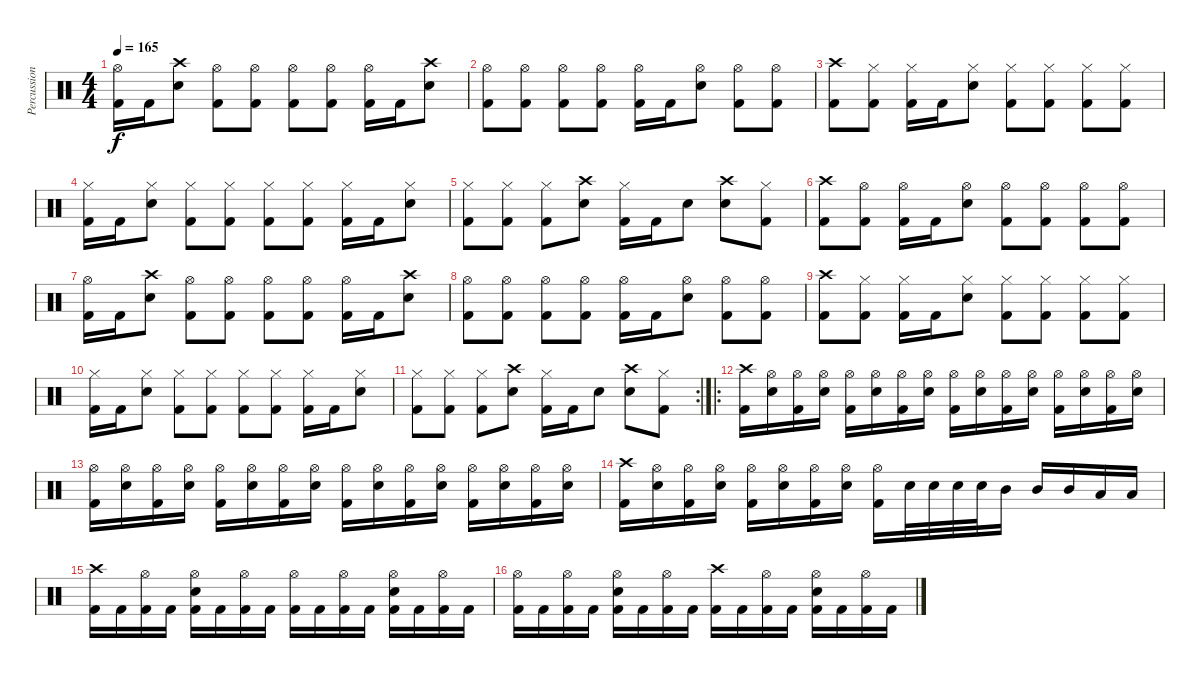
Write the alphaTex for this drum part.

\track ("Percussion" "Percussion") {instrument percussion}
\staff {score}
\articulation defaults
\ts (4 4)
\tempo 165
\clef neutral
\ks c
("Hi-Hat (open)" "Kick (hit) 2").16{dy f} "Kick (hit) 2".16 ("Crash high (hit)" "Snare (hit) 2").8 ("Hi-Hat (open)" "Kick (hit) 2").8 ("Hi-Hat (open)" "Kick (hit) 2").8 ("Hi-Hat (open)" "Kick (hit) 2").8 ("Hi-Hat (open)" "Kick (hit) 2").8 ("Hi-Hat (open)" "Kick (hit) 2").16 "Kick (hit) 2".16 ("Crash high (hit)" "Snare (hit) 2").8 |
("Hi-Hat (open)" "Kick (hit) 2").8 ("Hi-Hat (open)" "Kick (hit) 2").8 ("Hi-Hat (open)" "Kick (hit) 2").8 ("Hi-Hat (open)" "Kick (hit) 2").8 ("Hi-Hat (open)" "Kick (hit) 2").16 "Kick (hit) 2".16 ("Hi-Hat (open)" "Snare (hit) 2").8 ("Hi-Hat (open)" "Kick (hit) 2").8 ("Hi-Hat (open)" "Kick (hit) 2").8 |
("Crash high (hit)" "Kick (hit) 2").8 ("Hi-Hat (closed)" "Kick (hit) 2").8 ("Hi-Hat (closed)" "Kick (hit) 2").16 "Kick (hit) 2".16 ("Hi-Hat (closed)" "Snare (hit) 2").8 ("Hi-Hat (closed)" "Kick (hit) 2").8 ("Hi-Hat (closed)" "Kick (hit) 2").8 ("Hi-Hat (closed)" "Kick (hit) 2").8 ("Hi-Hat (closed)" "Kick (hit) 2").8 |
("Hi-Hat (closed)" "Kick (hit) 2").16 "Kick (hit) 2".16 ("Hi-Hat (closed)" "Snare (hit) 2").8 ("Hi-Hat (closed)" "Kick (hit) 2").8 ("Hi-Hat (closed)" "Kick (hit) 2").8 ("Hi-Hat (closed)" "Kick (hit) 2").8 ("Hi-Hat (closed)" "Kick (hit) 2").8 ("Hi-Hat (closed)" "Kick (hit) 2").16 "Kick (hit) 2".16 ("Hi-Hat (closed)" "Snare (hit) 2").8 |
("Hi-Hat (closed)" "Kick (hit) 2").8 ("Hi-Hat (closed)" "Kick (hit) 2").8 ("Hi-Hat (closed)" "Kick (hit) 2").8 ("Crash high (hit)" "Snare (hit) 2").8 ("Hi-Hat (closed)" "Kick (hit) 2").16 "Kick (hit) 2".16 "Snare (hit) 2".8 ("Crash high (hit)" "Snare (hit) 2").8 ("Hi-Hat (closed)" "Kick (hit) 2").8 |
("Crash high (hit)" "Kick (hit) 2").8 ("Hi-Hat (open)" "Kick (hit) 2").8 ("Hi-Hat (open)" "Kick (hit) 2").16 "Kick (hit) 2".16 ("Hi-Hat (open)" "Snare (hit) 2").8 ("Hi-Hat (open)" "Kick (hit) 2").8 ("Hi-Hat (open)" "Kick (hit) 2").8 ("Hi-Hat (open)" "Kick (hit) 2").8 ("Hi-Hat (open)" "Kick (hit) 2").8 |
("Hi-Hat (open)" "Kick (hit) 2").16 "Kick (hit) 2".16 ("Crash high (hit)" "Snare (hit) 2").8 ("Hi-Hat (open)" "Kick (hit) 2").8 ("Hi-Hat (open)" "Kick (hit) 2").8 ("Hi-Hat (open)" "Kick (hit) 2").8 ("Hi-Hat (open)" "Kick (hit) 2").8 ("Hi-Hat (open)" "Kick (hit) 2").16 "Kick (hit) 2".16 ("Crash high (hit)" "Snare (hit) 2").8 |
("Hi-Hat (open)" "Kick (hit) 2").8 ("Hi-Hat (open)" "Kick (hit) 2").8 ("Hi-Hat (open)" "Kick (hit) 2").8 ("Hi-Hat (open)" "Kick (hit) 2").8 ("Hi-Hat (open)" "Kick (hit) 2").16 "Kick (hit) 2".16 ("Hi-Hat (open)" "Snare (hit) 2").8 ("Hi-Hat (open)" "Kick (hit) 2").8 ("Hi-Hat (open)" "Kick (hit) 2").8 |
("Crash high (hit)" "Kick (hit) 2").8 ("Hi-Hat (closed)" "Kick (hit) 2").8 ("Hi-Hat (closed)" "Kick (hit) 2").16 "Kick (hit) 2".16 ("Hi-Hat (closed)" "Snare (hit) 2").8 ("Hi-Hat (closed)" "Kick (hit) 2").8 ("Hi-Hat (closed)" "Kick (hit) 2").8 ("Hi-Hat (closed)" "Kick (hit) 2").8 ("Hi-Hat (closed)" "Kick (hit) 2").8 |
("Hi-Hat (closed)" "Kick (hit) 2").16 "Kick (hit) 2".16 ("Hi-Hat (closed)" "Snare (hit) 2").8 ("Hi-Hat (closed)" "Kick (hit) 2").8 ("Hi-Hat (closed)" "Kick (hit) 2").8 ("Hi-Hat (closed)" "Kick (hit) 2").8 ("Hi-Hat (closed)" "Kick (hit) 2").8 ("Hi-Hat (closed)" "Kick (hit) 2").16 "Kick (hit) 2".16 ("Hi-Hat (closed)" "Snare (hit) 2").8 |
\rc 2
("Hi-Hat (closed)" "Kick (hit) 2").8 ("Hi-Hat (closed)" "Kick (hit) 2").8 ("Hi-Hat (closed)" "Kick (hit) 2").8 ("Crash high (hit)" "Snare (hit) 2").8 ("Hi-Hat (closed)" "Kick (hit) 2").16 "Kick (hit) 2".16 "Snare (hit) 2".8 ("Crash high (hit)" "Snare (hit) 2").8 ("Hi-Hat (closed)" "Kick (hit) 2").8 |
\ro
("Crash high (hit)" "Kick (hit) 2").16 ("Hi-Hat (open)" "Snare (hit) 2").16 ("Hi-Hat (open)" "Kick (hit) 2").16 ("Hi-Hat (open)" "Snare (hit) 2").16 ("Hi-Hat (open)" "Kick (hit) 2").16 ("Hi-Hat (open)" "Snare (hit) 2").16 ("Hi-Hat (open)" "Kick (hit) 2").16 ("Hi-Hat (open)" "Snare (hit) 2").16 ("Hi-Hat (open)" "Kick (hit) 2").16 ("Hi-Hat (open)" "Snare (hit) 2").16 ("Hi-Hat (open)" "Kick (hit) 2").16 ("Hi-Hat (open)" "Snare (hit) 2").16 ("Hi-Hat (open)" "Kick (hit) 2").16 ("Hi-Hat (open)" "Snare (hit) 2").16 ("Hi-Hat (open)" "Kick (hit) 2").16 ("Hi-Hat (open)" "Snare (hit) 2").16 |
("Hi-Hat (open)" "Kick (hit) 2").16 ("Hi-Hat (open)" "Snare (hit) 2").16 ("Hi-Hat (open)" "Kick (hit) 2").16 ("Hi-Hat (open)" "Snare (hit) 2").16 ("Hi-Hat (open)" "Kick (hit) 2").16 ("Hi-Hat (open)" "Snare (hit) 2").16 ("Hi-Hat (open)" "Kick (hit) 2").16 ("Hi-Hat (open)" "Snare (hit) 2").16 ("Hi-Hat (open)" "Kick (hit) 2").16 ("Hi-Hat (open)" "Snare (hit) 2").16 ("Hi-Hat (open)" "Kick (hit) 2").16 ("Hi-Hat (open)" "Snare (hit) 2").16 ("Hi-Hat (open)" "Kick (hit) 2").16 ("Hi-Hat (open)" "Snare (hit) 2").16 ("Hi-Hat (open)" "Kick (hit) 2").16 ("Hi-Hat (open)" "Snare (hit) 2").16 |
("Crash high (hit)" "Kick (hit) 2").16 ("Hi-Hat (open)" "Snare (hit) 2").16 ("Hi-Hat (open)" "Kick (hit) 2").16 ("Hi-Hat (open)" "Snare (hit) 2").16 ("Hi-Hat (open)" "Kick (hit) 2").16 ("Hi-Hat (open)" "Snare (hit) 2").16 ("Hi-Hat (open)" "Kick (hit) 2").16 ("Hi-Hat (open)" "Snare (hit) 2").16 ("Hi-Hat (open)" "Kick (hit) 2").16 "Snare (hit) 2".32 "Snare (hit) 2".32 "Snare (hit) 2".32 "Snare (hit) 2".32 "Mid Tom (hit)".16 "Mid Tom (hit)".16 "Mid Tom (hit)".16 "Low Tom (hit)".16 "Low Tom (hit)".16 |
("Crash high (hit)" "Kick (hit) 2").16 "Kick (hit) 2".16 ("Hi-Hat (open)" "Kick (hit) 2").16 "Kick (hit) 2".16 ("Hi-Hat (open)" "Snare (hit) 2" "Kick (hit) 2").16 "Kick (hit) 2".16 ("Hi-Hat (open)" "Kick (hit) 2").16 "Kick (hit) 2".16 ("Hi-Hat (open)" "Kick (hit) 2").16 "Kick (hit) 2".16 ("Hi-Hat (open)" "Kick (hit) 2").16 "Kick (hit) 2".16 ("Hi-Hat (open)" "Snare (hit) 2" "Kick (hit) 2").16 "Kick (hit) 2".16 ("Hi-Hat (open)" "Kick (hit) 2").16 "Kick (hit) 2".16 |
("Hi-Hat (open)" "Kick (hit) 2").16 "Kick (hit) 2".16 ("Hi-Hat (open)" "Kick (hit) 2").16 "Kick (hit) 2".16 ("Hi-Hat (open)" "Snare (hit) 2" "Kick (hit) 2").16 "Kick (hit) 2".16 ("Hi-Hat (open)" "Kick (hit) 2").16 "Kick (hit) 2".16 ("Crash high (hit)" "Kick (hit) 2").16 "Kick (hit) 2".16 ("Hi-Hat (open)" "Kick (hit) 2").16 "Kick (hit) 2".16 ("Hi-Hat (open)" "Snare (hit) 2" "Kick (hit) 2").16 "Kick (hit) 2".16 ("Hi-Hat (open)" "Kick (hit) 2").16 "Kick (hit) 2".16
